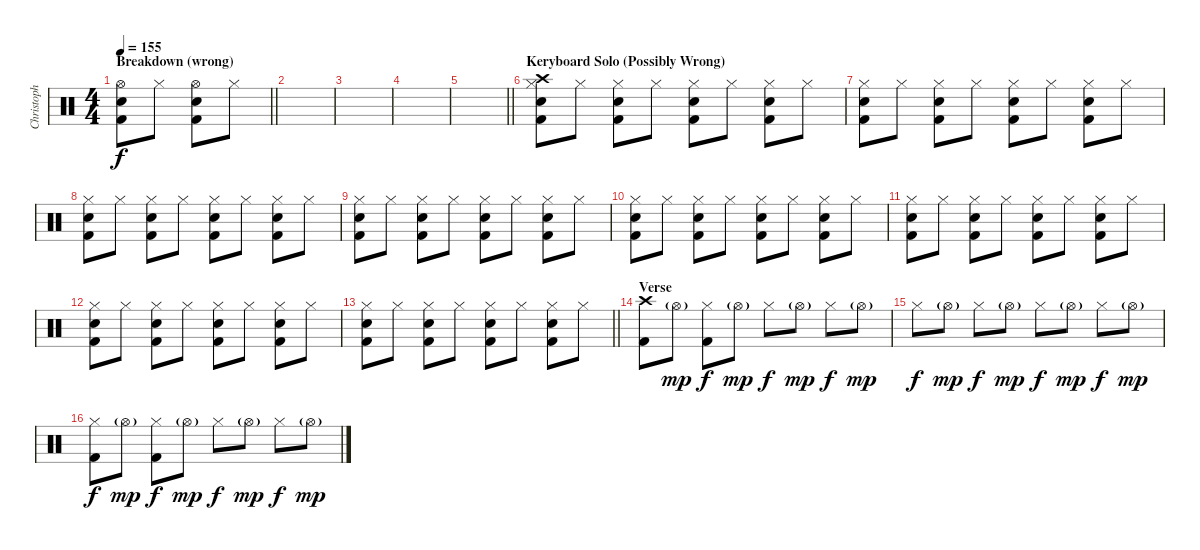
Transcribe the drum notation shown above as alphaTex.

\track ("Christoph \"Doom\" Schneider" "Christoph ") {instrument percussion}
\staff {score}
\articulation defaults
\ts (4 4)
\section ("" "Breakdown (wrong)")
\tempo 155
\clef neutral
\barLineRight lightlight
\ks c
("Hi-Hat (open)" "Snare (hit) 2" "Kick (hit) 2").8{dy f} "Hi-Hat (closed)".8 ("Hi-Hat (open)" "Snare (hit) 2" "Kick (hit) 2").8 "Hi-Hat (closed)".8 |
|
|
|
\barLineRight lightlight
|
\section ("" "Keryboard Solo (Possibly Wrong)")
("Crash high (hit)" "Hi-Hat (closed)" "Snare (hit) 2" "Kick (hit) 2").8 "Hi-Hat (closed)".8 ("Hi-Hat (closed)" "Snare (hit) 2" "Kick (hit) 2").8 "Hi-Hat (closed)".8 ("Hi-Hat (closed)" "Snare (hit) 2" "Kick (hit) 2").8 "Hi-Hat (closed)".8 ("Hi-Hat (closed)" "Snare (hit) 2" "Kick (hit) 2").8 "Hi-Hat (closed)".8 |
("Hi-Hat (closed)" "Snare (hit) 2" "Kick (hit) 2").8 "Hi-Hat (closed)".8 ("Hi-Hat (closed)" "Snare (hit) 2" "Kick (hit) 2").8 "Hi-Hat (closed)".8 ("Hi-Hat (closed)" "Snare (hit) 2" "Kick (hit) 2").8 "Hi-Hat (closed)".8 ("Hi-Hat (closed)" "Snare (hit) 2" "Kick (hit) 2").8 "Hi-Hat (closed)".8 |
("Hi-Hat (closed)" "Snare (hit) 2" "Kick (hit) 2").8 "Hi-Hat (closed)".8 ("Hi-Hat (closed)" "Snare (hit) 2" "Kick (hit) 2").8 "Hi-Hat (closed)".8 ("Hi-Hat (closed)" "Snare (hit) 2" "Kick (hit) 2").8 "Hi-Hat (closed)".8 ("Hi-Hat (closed)" "Snare (hit) 2" "Kick (hit) 2").8 "Hi-Hat (closed)".8 |
("Hi-Hat (closed)" "Snare (hit) 2" "Kick (hit) 2").8 "Hi-Hat (closed)".8 ("Hi-Hat (closed)" "Snare (hit) 2" "Kick (hit) 2").8 "Hi-Hat (closed)".8 ("Hi-Hat (closed)" "Snare (hit) 2" "Kick (hit) 2").8 "Hi-Hat (closed)".8 ("Hi-Hat (closed)" "Snare (hit) 2" "Kick (hit) 2").8 "Hi-Hat (closed)".8 |
("Hi-Hat (closed)" "Snare (hit) 2" "Kick (hit) 2").8 "Hi-Hat (closed)".8 ("Hi-Hat (closed)" "Snare (hit) 2" "Kick (hit) 2").8 "Hi-Hat (closed)".8 ("Hi-Hat (closed)" "Snare (hit) 2" "Kick (hit) 2").8 "Hi-Hat (closed)".8 ("Hi-Hat (closed)" "Snare (hit) 2" "Kick (hit) 2").8 "Hi-Hat (closed)".8 |
("Hi-Hat (closed)" "Snare (hit) 2" "Kick (hit) 2").8 "Hi-Hat (closed)".8 ("Hi-Hat (closed)" "Snare (hit) 2" "Kick (hit) 2").8 "Hi-Hat (closed)".8 ("Hi-Hat (closed)" "Snare (hit) 2" "Kick (hit) 2").8 "Hi-Hat (closed)".8 ("Hi-Hat (closed)" "Snare (hit) 2" "Kick (hit) 2").8 "Hi-Hat (closed)".8 |
("Hi-Hat (closed)" "Snare (hit) 2" "Kick (hit) 2").8 "Hi-Hat (closed)".8 ("Hi-Hat (closed)" "Snare (hit) 2" "Kick (hit) 2").8 "Hi-Hat (closed)".8 ("Hi-Hat (closed)" "Snare (hit) 2" "Kick (hit) 2").8 "Hi-Hat (closed)".8 ("Hi-Hat (closed)" "Snare (hit) 2" "Kick (hit) 2").8 "Hi-Hat (closed)".8 |
\barLineRight lightlight
("Hi-Hat (closed)" "Snare (hit) 2" "Kick (hit) 2").8 "Hi-Hat (closed)".8 ("Hi-Hat (closed)" "Snare (hit) 2" "Kick (hit) 2").8 "Hi-Hat (closed)".8 ("Hi-Hat (closed)" "Snare (hit) 2" "Kick (hit) 2").8 "Hi-Hat (closed)".8 ("Hi-Hat (closed)" "Snare (hit) 2" "Kick (hit) 2").8 "Hi-Hat (closed)".8 |
\section ("" "Verse")
("Crash high (hit)" "Kick (hit) 2").8 "Hi-Hat (open)"{g}.8{dy mp} ("Hi-Hat (closed)" "Kick (hit) 2").8{dy f} "Hi-Hat (open)"{g}.8{dy mp} "Hi-Hat (closed)".8{dy f} "Hi-Hat (open)"{g}.8{dy mp} "Hi-Hat (closed)".8{dy f} "Hi-Hat (open)"{g}.8{dy mp} |
"Hi-Hat (closed)".8{dy f} "Hi-Hat (open)"{g}.8{dy mp} "Hi-Hat (closed)".8{dy f} "Hi-Hat (open)"{g}.8{dy mp} "Hi-Hat (closed)".8{dy f} "Hi-Hat (open)"{g}.8{dy mp} "Hi-Hat (closed)".8{dy f} "Hi-Hat (open)"{g}.8{dy mp} |
("Hi-Hat (closed)" "Kick (hit) 2").8{dy f} "Hi-Hat (open)"{g}.8{dy mp} ("Hi-Hat (closed)" "Kick (hit) 2").8{dy f} "Hi-Hat (open)"{g}.8{dy mp} "Hi-Hat (closed)".8{dy f} "Hi-Hat (open)"{g}.8{dy mp} "Hi-Hat (closed)".8{dy f} "Hi-Hat (open)"{g}.8{dy mp}
